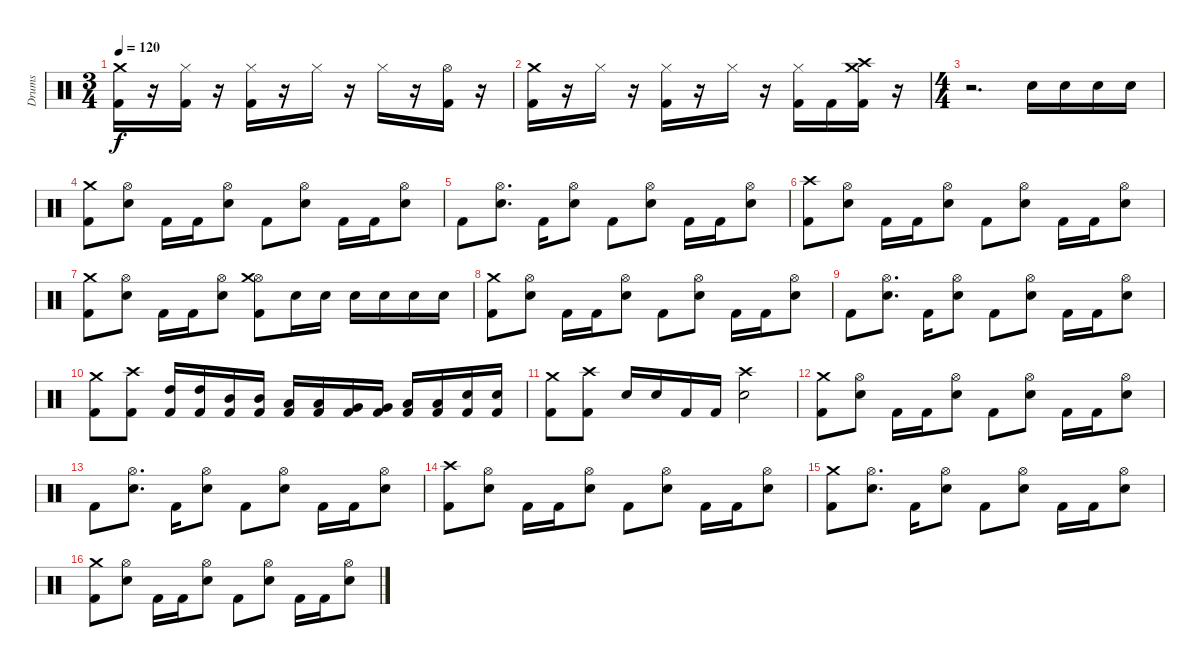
\track ("Drums" "Drums") {instrument percussion}
\staff {score}
\articulation defaults
\ts (3 4)
\tempo 120
\clef neutral
\ks c
("Crash medium (hit)" "Kick (hit) 2").16{dy f} r.16 ("Hi-Hat (closed)" "Kick (hit) 2").16 r.16 ("Hi-Hat (closed)" "Kick (hit) 2").16 r.16 "Hi-Hat (closed)".16 r.16 "Hi-Hat (closed)".16 r.16 ("Hi-Hat (open)" "Kick (hit) 2").16 r.16 |
("Crash medium (hit)" "Kick (hit) 2").16 r.16 "Hi-Hat (closed)".16 r.16 ("Hi-Hat (closed)" "Kick (hit) 2").16 r.16 "Hi-Hat (closed)".16 r.16 ("Hi-Hat (closed)" "Kick (hit) 2").16 "Kick (hit) 2".16 ("Crash medium (hit)" "Crash high (hit)" "Kick (hit) 2").16 r.16 |
\ts (4 4)
r.2{d} "Electric Snare (hit)".16 "Electric Snare (hit)".16 "Electric Snare (hit)".16 "Electric Snare (hit)".16 |
("Crash medium (hit)" "Kick (hit) 2").8 ("Hi-Hat (open)" "Snare (hit) 2").8 "Kick (hit) 2".16 "Kick (hit) 2".16 ("Hi-Hat (open)" "Snare (hit) 2").8 "Kick (hit) 2".8 ("Hi-Hat (open)" "Snare (hit) 2").8 "Kick (hit) 2".16 "Kick (hit) 2".16 ("Hi-Hat (open)" "Snare (hit) 2").8 |
"Kick (hit) 2".8 ("Hi-Hat (open)" "Snare (hit) 2").8{d} "Kick (hit) 2".16 ("Hi-Hat (open)" "Snare (hit) 2").8 "Kick (hit) 2".8 ("Hi-Hat (open)" "Snare (hit) 2").8 "Kick (hit) 2".16 "Kick (hit) 2".16 ("Hi-Hat (open)" "Snare (hit) 2").8 |
("Crash high (hit)" "Kick (hit) 2").8 ("Hi-Hat (open)" "Snare (hit) 2").8 "Kick (hit) 2".16 "Kick (hit) 2".16 ("Hi-Hat (open)" "Snare (hit) 2").8 "Kick (hit) 2".8 ("Hi-Hat (open)" "Snare (hit) 2").8 "Kick (hit) 2".16 "Kick (hit) 2".16 ("Hi-Hat (open)" "Snare (hit) 2").8 |
("Crash medium (hit)" "Kick (hit) 2").8 ("Hi-Hat (open)" "Snare (hit) 2").8 "Kick (hit) 2".16 "Kick (hit) 2".16 ("Hi-Hat (open)" "Snare (hit) 2").8 ("Hi-Hat (open)" "Crash medium (hit)" "Kick (hit) 2").8 "Electric Snare (hit)".16 "Electric Snare (hit)".16 "Electric Snare (hit)".16 "Electric Snare (hit)".16 "Electric Snare (hit)".16 "Electric Snare (hit)".16 |
("Crash medium (hit)" "Kick (hit) 2").8 ("Hi-Hat (open)" "Snare (hit) 2").8 "Kick (hit) 2".16 "Kick (hit) 2".16 ("Hi-Hat (open)" "Snare (hit) 2").8 "Kick (hit) 2".8 ("Hi-Hat (open)" "Snare (hit) 2").8 "Kick (hit) 2".16 "Kick (hit) 2".16 ("Hi-Hat (open)" "Snare (hit) 2").8 |
"Kick (hit) 2".8 ("Hi-Hat (open)" "Snare (hit) 2").8{d} "Kick (hit) 2".16 ("Hi-Hat (open)" "Snare (hit) 2").8 "Kick (hit) 2".8 ("Hi-Hat (open)" "Snare (hit) 2").8 "Kick (hit) 2".16 "Kick (hit) 2".16 ("Hi-Hat (open)" "Snare (hit) 2").8 |
("Crash medium (hit)" "Kick (hit) 2").8 ("Crash high (hit)" "Kick (hit) 2").8 ("High Tom (hit)" "Kick (hit) 2").16 ("High Tom (hit)" "Kick (hit) 2").16 ("Mid Tom (hit)" "Kick (hit) 2").16 ("Mid Tom (hit)" "Kick (hit) 2").16 ("Low Tom (hit)" "Kick (hit) 2").16 ("Low Tom (hit)" "Kick (hit) 2").16 ("Very Low Tom (hit)" "Kick (hit) 2").16 ("Very Low Tom (hit)" "Kick (hit) 2").16 ("Low Floor Tom (hit)" "Kick (hit) 2").16 ("Low Floor Tom (hit)" "Kick (hit) 2").16 ("Snare (hit) 2" "Kick (hit) 2").16 ("Snare (hit) 2" "Kick (hit) 2").16 |
("Crash medium (hit)" "Kick (hit) 2").8 ("Crash high (hit)" "Kick (hit) 2").8 "Snare (hit) 2".16 "Snare (hit) 2".16 "Kick (hit) 2".16 "Kick (hit) 2".16 ("Crash high (hit)" "Snare (hit) 2").2 |
("Crash medium (hit)" "Kick (hit) 2").8 ("Hi-Hat (open)" "Snare (hit) 2").8 "Kick (hit) 2".16 "Kick (hit) 2".16 ("Hi-Hat (open)" "Snare (hit) 2").8 "Kick (hit) 2".8 ("Hi-Hat (open)" "Snare (hit) 2").8 "Kick (hit) 2".16 "Kick (hit) 2".16 ("Hi-Hat (open)" "Snare (hit) 2").8 |
"Kick (hit) 2".8 ("Hi-Hat (open)" "Snare (hit) 2").8{d} "Kick (hit) 2".16 ("Hi-Hat (open)" "Snare (hit) 2").8 "Kick (hit) 2".8 ("Hi-Hat (open)" "Snare (hit) 2").8 "Kick (hit) 2".16 "Kick (hit) 2".16 ("Hi-Hat (open)" "Snare (hit) 2").8 |
("Crash high (hit)" "Kick (hit) 2").8 ("Hi-Hat (open)" "Snare (hit) 2").8 "Kick (hit) 2".16 "Kick (hit) 2".16 ("Hi-Hat (open)" "Snare (hit) 2").8 "Kick (hit) 2".8 ("Hi-Hat (open)" "Snare (hit) 2").8 "Kick (hit) 2".16 "Kick (hit) 2".16 ("Hi-Hat (open)" "Snare (hit) 2").8 |
("Crash medium (hit)" "Kick (hit) 2").8 ("Hi-Hat (open)" "Snare (hit) 2").8{d} "Kick (hit) 2".16 ("Hi-Hat (open)" "Snare (hit) 2").8 "Kick (hit) 2".8 ("Hi-Hat (open)" "Snare (hit) 2").8 "Kick (hit) 2".16 "Kick (hit) 2".16 ("Hi-Hat (open)" "Snare (hit) 2").8 |
("Crash medium (hit)" "Kick (hit) 2").8 ("Hi-Hat (open)" "Snare (hit) 2").8 "Kick (hit) 2".16 "Kick (hit) 2".16 ("Hi-Hat (open)" "Snare (hit) 2").8 "Kick (hit) 2".8 ("Hi-Hat (open)" "Snare (hit) 2").8 "Kick (hit) 2".16 "Kick (hit) 2".16 ("Hi-Hat (open)" "Snare (hit) 2").8
